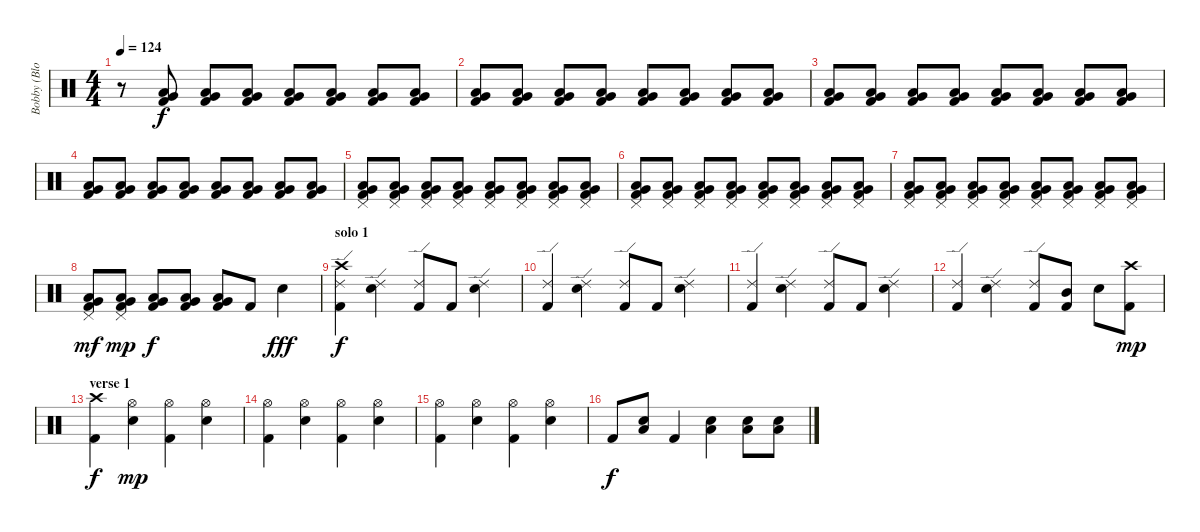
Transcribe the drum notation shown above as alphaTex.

\track ("Bobby (Blotz) Blotzer" "Bobby (Blo") {instrument percussion}
\staff {score}
\articulation defaults
\ts (4 4)
\tempo 124
\clef neutral
\ks c
r.8{dy f volume 2} ("Kick (hit) 2" "Very Low Tom (hit)" "Low Floor Tom (hit)").8{volume 4} ("Kick (hit) 2" "Very Low Tom (hit)" "Low Floor Tom (hit)").8 ("Kick (hit) 2" "Very Low Tom (hit)" "Low Floor Tom (hit)").8 ("Kick (hit) 2" "Very Low Tom (hit)" "Low Floor Tom (hit)").8 ("Kick (hit) 2" "Very Low Tom (hit)" "Low Floor Tom (hit)").8 ("Kick (hit) 2" "Very Low Tom (hit)" "Low Floor Tom (hit)").8 ("Kick (hit) 2" "Very Low Tom (hit)" "Low Floor Tom (hit)").8 |
("Kick (hit) 2" "Very Low Tom (hit)" "Low Floor Tom (hit)").8 ("Kick (hit) 2" "Very Low Tom (hit)" "Low Floor Tom (hit)").8 ("Kick (hit) 2" "Very Low Tom (hit)" "Low Floor Tom (hit)").8 ("Kick (hit) 2" "Very Low Tom (hit)" "Low Floor Tom (hit)").8 ("Kick (hit) 2" "Very Low Tom (hit)" "Low Floor Tom (hit)").8 ("Kick (hit) 2" "Very Low Tom (hit)" "Low Floor Tom (hit)").8 ("Kick (hit) 2" "Very Low Tom (hit)" "Low Floor Tom (hit)").8 ("Kick (hit) 2" "Very Low Tom (hit)" "Low Floor Tom (hit)").8 |
("Kick (hit) 2" "Very Low Tom (hit)" "Low Floor Tom (hit)").8 ("Kick (hit) 2" "Very Low Tom (hit)" "Low Floor Tom (hit)").8{volume 8} ("Kick (hit) 2" "Very Low Tom (hit)" "Low Floor Tom (hit)").8 ("Kick (hit) 2" "Very Low Tom (hit)" "Low Floor Tom (hit)").8 ("Kick (hit) 2" "Very Low Tom (hit)" "Low Floor Tom (hit)").8 ("Kick (hit) 2" "Very Low Tom (hit)" "Low Floor Tom (hit)").8 ("Kick (hit) 2" "Very Low Tom (hit)" "Low Floor Tom (hit)").8 ("Kick (hit) 2" "Very Low Tom (hit)" "Low Floor Tom (hit)").8 |
("Kick (hit) 2" "Very Low Tom (hit)" "Low Floor Tom (hit)").8 ("Kick (hit) 2" "Very Low Tom (hit)" "Low Floor Tom (hit)").8 ("Kick (hit) 2" "Very Low Tom (hit)" "Low Floor Tom (hit)").8 ("Kick (hit) 2" "Very Low Tom (hit)" "Low Floor Tom (hit)").8 ("Kick (hit) 2" "Very Low Tom (hit)" "Low Floor Tom (hit)").8 ("Kick (hit) 2" "Very Low Tom (hit)" "Low Floor Tom (hit)").8 ("Kick (hit) 2" "Very Low Tom (hit)" "Low Floor Tom (hit)").8 ("Kick (hit) 2" "Very Low Tom (hit)" "Low Floor Tom (hit)").8 |
("Kick (hit) 2" "Pedal Hi-Hat (hit)" "Very Low Tom (hit)" "Low Floor Tom (hit)").8 ("Kick (hit) 2" "Pedal Hi-Hat (hit)" "Very Low Tom (hit)" "Low Floor Tom (hit)").8{volume 11} ("Kick (hit) 2" "Pedal Hi-Hat (hit)" "Very Low Tom (hit)" "Low Floor Tom (hit)").8 ("Kick (hit) 2" "Pedal Hi-Hat (hit)" "Very Low Tom (hit)" "Low Floor Tom (hit)").8 ("Kick (hit) 2" "Pedal Hi-Hat (hit)" "Very Low Tom (hit)" "Low Floor Tom (hit)").8 ("Kick (hit) 2" "Pedal Hi-Hat (hit)" "Very Low Tom (hit)" "Low Floor Tom (hit)").8 ("Kick (hit) 2" "Pedal Hi-Hat (hit)" "Very Low Tom (hit)" "Low Floor Tom (hit)").8 ("Kick (hit) 2" "Pedal Hi-Hat (hit)" "Very Low Tom (hit)" "Low Floor Tom (hit)").8 |
("Kick (hit) 2" "Pedal Hi-Hat (hit)" "Very Low Tom (hit)" "Low Floor Tom (hit)").8 ("Kick (hit) 2" "Pedal Hi-Hat (hit)" "Very Low Tom (hit)" "Low Floor Tom (hit)").8 ("Kick (hit) 2" "Pedal Hi-Hat (hit)" "Very Low Tom (hit)" "Low Floor Tom (hit)").8 ("Kick (hit) 2" "Pedal Hi-Hat (hit)" "Very Low Tom (hit)" "Low Floor Tom (hit)").8 ("Kick (hit) 2" "Pedal Hi-Hat (hit)" "Very Low Tom (hit)" "Low Floor Tom (hit)").8 ("Kick (hit) 2" "Pedal Hi-Hat (hit)" "Very Low Tom (hit)" "Low Floor Tom (hit)").8 ("Kick (hit) 2" "Pedal Hi-Hat (hit)" "Very Low Tom (hit)" "Low Floor Tom (hit)").8 ("Kick (hit) 2" "Pedal Hi-Hat (hit)" "Very Low Tom (hit)" "Low Floor Tom (hit)").8 |
("Kick (hit) 2" "Pedal Hi-Hat (hit)" "Very Low Tom (hit)" "Low Floor Tom (hit)").8 ("Kick (hit) 2" "Pedal Hi-Hat (hit)" "Very Low Tom (hit)" "Low Floor Tom (hit)").8{volume 14} ("Kick (hit) 2" "Pedal Hi-Hat (hit)" "Very Low Tom (hit)" "Low Floor Tom (hit)").8 ("Kick (hit) 2" "Pedal Hi-Hat (hit)" "Very Low Tom (hit)" "Low Floor Tom (hit)").8 ("Kick (hit) 2" "Pedal Hi-Hat (hit)" "Very Low Tom (hit)" "Low Floor Tom (hit)").8 ("Kick (hit) 2" "Pedal Hi-Hat (hit)" "Very Low Tom (hit)" "Low Floor Tom (hit)").8 ("Kick (hit) 2" "Pedal Hi-Hat (hit)" "Very Low Tom (hit)" "Low Floor Tom (hit)").8 ("Kick (hit) 2" "Pedal Hi-Hat (hit)" "Very Low Tom (hit)" "Low Floor Tom (hit)").8 |
("Kick (hit) 2" "Pedal Hi-Hat (hit)" "Very Low Tom (hit)" "Low Floor Tom (hit)").8{dy mf} ("Kick (hit) 2" "Pedal Hi-Hat (hit)" "Very Low Tom (hit)" "Low Floor Tom (hit)").8{dy mp} ("Kick (hit) 2" "Very Low Tom (hit)" "Low Floor Tom (hit)").8{dy f} ("Kick (hit) 2" "Very Low Tom (hit)" "Low Floor Tom (hit)").8 ("Kick (hit) 2" "Very Low Tom (hit)" "Low Floor Tom (hit)").8 "Kick (hit) 2".8 "Snare (hit) 2".4{dy fff} |
\section ("" "solo 1")
("Kick (hit) 2" "Ride (edge) 2" "Crash high (hit)").4{dy f volume 14} ("Ride (edge) 2" "Snare (hit) 2").4 ("Kick (hit) 2" "Ride (edge) 2").8 "Kick (hit) 2".8 ("Ride (edge) 2" "Snare (hit) 2").4 |
("Kick (hit) 2" "Ride (edge) 2").4 ("Ride (edge) 2" "Snare (hit) 2").4 ("Kick (hit) 2" "Ride (edge) 2").8 "Kick (hit) 2".8 ("Ride (edge) 2" "Snare (hit) 2").4 |
("Kick (hit) 2" "Ride (edge) 2").4 ("Ride (edge) 2" "Snare (hit) 2").4 ("Kick (hit) 2" "Ride (edge) 2").8 "Kick (hit) 2".8 ("Ride (edge) 2" "Snare (hit) 2").4 |
("Kick (hit) 2" "Ride (edge) 2").4 ("Ride (edge) 2" "Snare (hit) 2").4 ("Kick (hit) 2" "Ride (edge) 2").8 ("Kick (hit) 2" "Mid Tom (hit)").8 "Snare (hit) 2".8 ("Kick (hit) 2" "Crash high (hit)").8{dy mp} |
\section ("" "verse 1")
("Kick (hit) 2" "Crash high (hit)").4{dy f} ("Hi-Hat (open)" "Snare (hit) 2").4{dy mp} ("Kick (hit) 2" "Hi-Hat (open)").4 ("Hi-Hat (open)" "Snare (hit) 2").4 |
("Kick (hit) 2" "Hi-Hat (open)").4 ("Hi-Hat (open)" "Snare (hit) 2").4 ("Kick (hit) 2" "Hi-Hat (open)").4 ("Hi-Hat (open)" "Snare (hit) 2").4 |
("Kick (hit) 2" "Hi-Hat (open)").4 ("Hi-Hat (open)" "Snare (hit) 2").4 ("Kick (hit) 2" "Hi-Hat (open)").4 ("Hi-Hat (open)" "Snare (hit) 2").4 |
"Kick (hit) 2".8{dy f} ("Low Tom (hit)" "Snare (hit) 2").8 "Kick (hit) 2".4 ("Low Tom (hit)" "Snare (hit) 2").4 ("Low Tom (hit)" "Snare (hit) 2").8 ("Low Tom (hit)" "Snare (hit) 2").8
